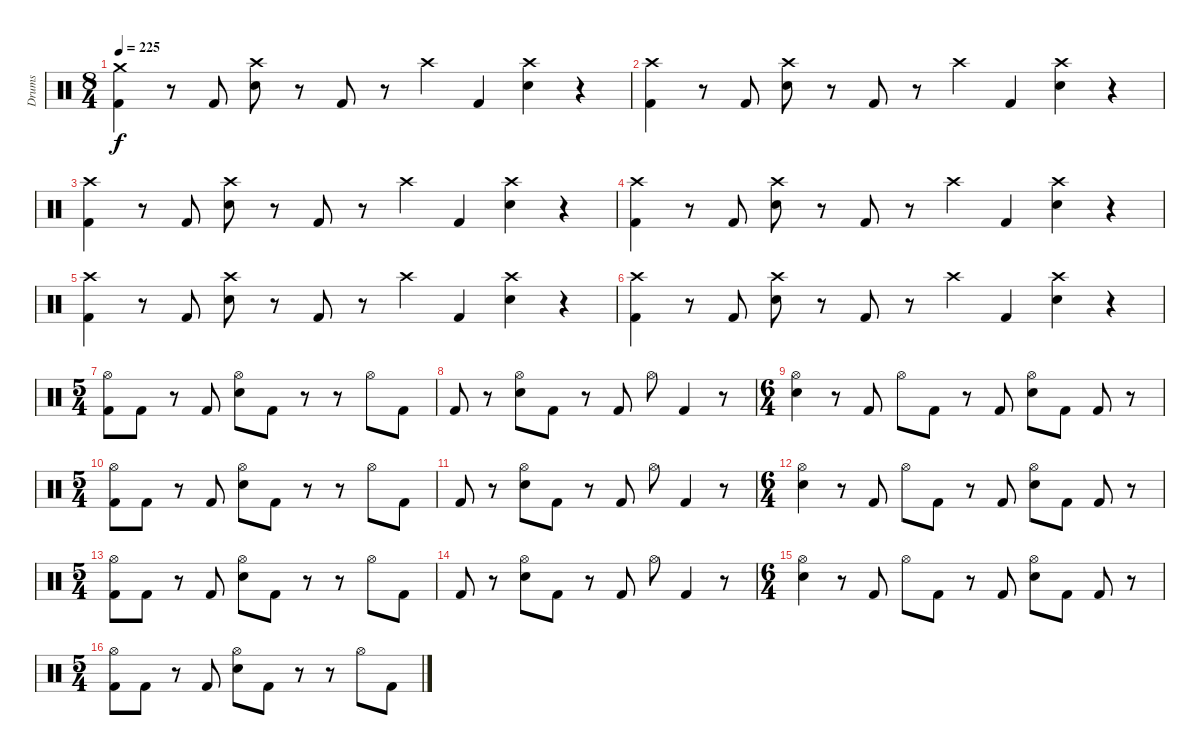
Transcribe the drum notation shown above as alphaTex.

\track ("Drums" "Drums") {instrument percussion}
\staff {score}
\articulation defaults
\ts (8 4)
\tempo 225
\clef neutral
\ks c
("Crash medium (hit)" "Kick (hit) 2").4{dy f} r.8 "Kick (hit) 2".8 ("Crash high (hit)" "Electric Snare (hit)").8 r.8 "Kick (hit) 2".8 r.8 "Crash high (hit)".4 "Kick (hit) 2".4 ("Crash high (hit)" "Electric Snare (hit)").4 r.4 |
("Crash high (hit)" "Kick (hit) 2").4 r.8 "Kick (hit) 2".8 ("Crash high (hit)" "Electric Snare (hit)").8 r.8 "Kick (hit) 2".8 r.8 "Crash high (hit)".4 "Kick (hit) 2".4 ("Crash high (hit)" "Electric Snare (hit)").4 r.4 |
("Crash high (hit)" "Kick (hit) 2").4 r.8 "Kick (hit) 2".8 ("Crash high (hit)" "Electric Snare (hit)").8 r.8 "Kick (hit) 2".8 r.8 "Crash high (hit)".4 "Kick (hit) 2".4 ("Crash high (hit)" "Electric Snare (hit)").4 r.4 |
("Crash high (hit)" "Kick (hit) 2").4 r.8 "Kick (hit) 2".8 ("Crash high (hit)" "Electric Snare (hit)").8 r.8 "Kick (hit) 2".8 r.8 "Crash high (hit)".4 "Kick (hit) 2".4 ("Crash high (hit)" "Electric Snare (hit)").4 r.4 |
("Crash high (hit)" "Kick (hit) 2").4 r.8 "Kick (hit) 2".8 ("Crash high (hit)" "Electric Snare (hit)").8 r.8 "Kick (hit) 2".8 r.8 "Crash high (hit)".4 "Kick (hit) 2".4 ("Crash high (hit)" "Electric Snare (hit)").4 r.4 |
("Crash high (hit)" "Kick (hit) 2").4 r.8 "Kick (hit) 2".8 ("Crash high (hit)" "Electric Snare (hit)").8 r.8 "Kick (hit) 2".8 r.8 "Crash high (hit)".4 "Kick (hit) 2".4 ("Crash high (hit)" "Electric Snare (hit)").4 r.4 |
\ts (5 4)
("Hi-Hat (open)" "Kick (hit) 2").8 "Kick (hit) 2".8 r.8 "Kick (hit) 2".8 ("Hi-Hat (open)" "Electric Snare (hit)").8 "Kick (hit) 2".8 r.8 r.8 "Hi-Hat (open)".8 "Kick (hit) 2".8 |
"Kick (hit) 2".8 r.8 ("Hi-Hat (open)" "Electric Snare (hit)").8 "Kick (hit) 2".8 r.8 "Kick (hit) 2".8 "Hi-Hat (open)".8 "Kick (hit) 2".4 r.8 |
\ts (6 4)
("Hi-Hat (open)" "Electric Snare (hit)").4 r.8 "Kick (hit) 2".8 "Hi-Hat (open)".8 "Kick (hit) 2".8 r.8 "Kick (hit) 2".8 ("Hi-Hat (open)" "Electric Snare (hit)").8 "Kick (hit) 2".8 "Kick (hit) 2".8 r.8 |
\ts (5 4)
("Hi-Hat (open)" "Kick (hit) 2").8 "Kick (hit) 2".8 r.8 "Kick (hit) 2".8 ("Hi-Hat (open)" "Electric Snare (hit)").8 "Kick (hit) 2".8 r.8 r.8 "Hi-Hat (open)".8 "Kick (hit) 2".8 |
"Kick (hit) 2".8 r.8 ("Hi-Hat (open)" "Electric Snare (hit)").8 "Kick (hit) 2".8 r.8 "Kick (hit) 2".8 "Hi-Hat (open)".8 "Kick (hit) 2".4 r.8 |
\ts (6 4)
("Hi-Hat (open)" "Electric Snare (hit)").4 r.8 "Kick (hit) 2".8 "Hi-Hat (open)".8 "Kick (hit) 2".8 r.8 "Kick (hit) 2".8 ("Hi-Hat (open)" "Electric Snare (hit)").8 "Kick (hit) 2".8 "Kick (hit) 2".8 r.8 |
\ts (5 4)
("Hi-Hat (open)" "Kick (hit) 2").8 "Kick (hit) 2".8 r.8 "Kick (hit) 2".8 ("Hi-Hat (open)" "Electric Snare (hit)").8 "Kick (hit) 2".8 r.8 r.8 "Hi-Hat (open)".8 "Kick (hit) 2".8 |
"Kick (hit) 2".8 r.8 ("Hi-Hat (open)" "Electric Snare (hit)").8 "Kick (hit) 2".8 r.8 "Kick (hit) 2".8 "Hi-Hat (open)".8 "Kick (hit) 2".4 r.8 |
\ts (6 4)
("Hi-Hat (open)" "Electric Snare (hit)").4 r.8 "Kick (hit) 2".8 "Hi-Hat (open)".8 "Kick (hit) 2".8 r.8 "Kick (hit) 2".8 ("Hi-Hat (open)" "Electric Snare (hit)").8 "Kick (hit) 2".8 "Kick (hit) 2".8 r.8 |
\ts (5 4)
("Hi-Hat (open)" "Kick (hit) 2").8 "Kick (hit) 2".8 r.8 "Kick (hit) 2".8 ("Hi-Hat (open)" "Electric Snare (hit)").8 "Kick (hit) 2".8 r.8 r.8 "Hi-Hat (open)".8 "Kick (hit) 2".8
